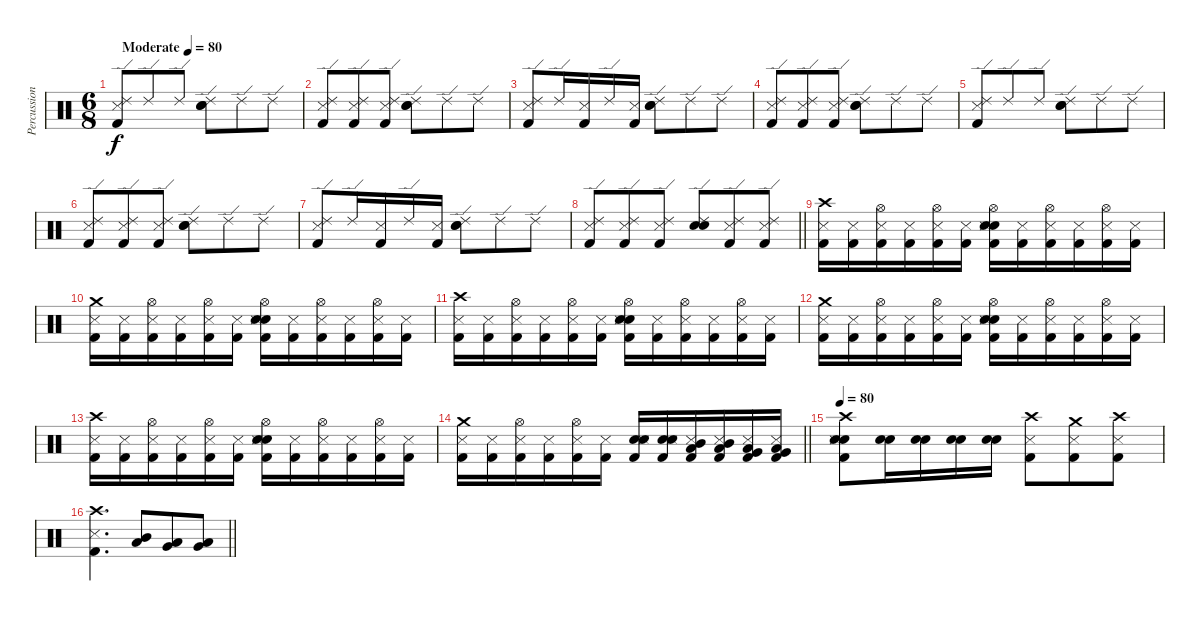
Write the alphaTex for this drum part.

\track ("Percussion" "Percussion") {instrument percussion}
\staff {score}
\articulation defaults
\ts (6 8)
\tempo (80 "Moderate")
\clef neutral
\ks c
("Ride (edge) 2" "Snare (side stick) 3" "Kick (hit) 2").8{dy f} "Ride (edge) 2".8 "Ride (edge) 2".8 ("Ride (edge) 2" "Electric Snare (hit)" "Snare (hit) 2").8 "Ride (edge) 2".8 "Ride (edge) 2".8 |
("Ride (edge) 2" "Snare (side stick) 3" "Kick (hit) 2").8 ("Ride (edge) 2" "Snare (side stick) 3" "Kick (hit) 2").8 ("Ride (edge) 2" "Snare (side stick) 3" "Kick (hit) 2").8 ("Ride (edge) 2" "Electric Snare (hit)" "Snare (hit) 2").8 "Ride (edge) 2".8 "Ride (edge) 2".8 |
("Ride (edge) 2" "Snare (side stick) 3" "Kick (hit) 2").8 "Ride (edge) 2".16 ("Snare (side stick) 3" "Kick (hit) 2").16 "Ride (edge) 2".16 ("Snare (side stick) 3" "Kick (hit) 2").16 ("Ride (edge) 2" "Electric Snare (hit)" "Snare (hit) 2").8 "Ride (edge) 2".8 "Ride (edge) 2".8 |
("Ride (edge) 2" "Snare (side stick) 3" "Kick (hit) 2").8 ("Ride (edge) 2" "Snare (side stick) 3" "Kick (hit) 2").8 ("Ride (edge) 2" "Snare (side stick) 3" "Kick (hit) 2").8 ("Ride (edge) 2" "Electric Snare (hit)" "Snare (hit) 2").8 "Ride (edge) 2".8 "Ride (edge) 2".8 |
("Ride (edge) 2" "Snare (side stick) 3" "Kick (hit) 2").8 "Ride (edge) 2".8 "Ride (edge) 2".8 ("Ride (edge) 2" "Electric Snare (hit)" "Snare (hit) 2").8 "Ride (edge) 2".8 "Ride (edge) 2".8 |
("Ride (edge) 2" "Snare (side stick) 3" "Kick (hit) 2").8 ("Ride (edge) 2" "Snare (side stick) 3" "Kick (hit) 2").8 ("Ride (edge) 2" "Snare (side stick) 3" "Kick (hit) 2").8 ("Ride (edge) 2" "Electric Snare (hit)" "Snare (hit) 2").8 "Ride (edge) 2".8 "Ride (edge) 2".8 |
("Ride (edge) 2" "Snare (side stick) 3" "Kick (hit) 2").8 "Ride (edge) 2".16 ("Snare (side stick) 3" "Kick (hit) 2").16 "Ride (edge) 2".16 ("Snare (side stick) 3" "Kick (hit) 2").16 ("Ride (edge) 2" "Electric Snare (hit)" "Snare (hit) 2").8 "Ride (edge) 2".8 "Ride (edge) 2".8 |
\barLineRight lightlight
("Ride (edge) 2" "Snare (side stick) 3" "Kick (hit) 2").8 ("Ride (edge) 2" "Snare (side stick) 3" "Kick (hit) 2").8 ("Ride (edge) 2" "Snare (side stick) 3" "Kick (hit) 2").8 ("Ride (edge) 2" "Electric Snare (hit)" "Snare (hit) 2").8 ("Ride (edge) 2" "Snare (side stick) 3" "Kick (hit) 2").8 ("Ride (edge) 2" "Snare (side stick) 3" "Kick (hit) 2").8 |
("Crash high (hit)" "Snare (side stick) 3" "Kick (hit) 2").16 ("Snare (side stick) 3" "Kick (hit) 2").16 ("Hi-Hat (open)" "Snare (side stick) 3" "Kick (hit) 2").16 ("Snare (side stick) 3" "Kick (hit) 2").16 ("Hi-Hat (open)" "Snare (side stick) 3" "Kick (hit) 2").16 ("Snare (side stick) 3" "Kick (hit) 2").16 ("Hi-Hat (open)" "Electric Snare (hit)" "Snare (hit) 2" "Snare (side stick) 3" "Kick (hit) 2").16 ("Snare (side stick) 3" "Kick (hit) 2").16 ("Hi-Hat (open)" "Snare (side stick) 3" "Kick (hit) 2").16 ("Snare (side stick) 3" "Kick (hit) 2").16 ("Hi-Hat (open)" "Snare (side stick) 3" "Kick (hit) 2").16 ("Snare (side stick) 3" "Kick (hit) 2").16 |
("Crash medium (hit)" "Snare (side stick) 3" "Kick (hit) 2").16 ("Snare (side stick) 3" "Kick (hit) 2").16 ("Hi-Hat (open)" "Snare (side stick) 3" "Kick (hit) 2").16 ("Snare (side stick) 3" "Kick (hit) 2").16 ("Hi-Hat (open)" "Snare (side stick) 3" "Kick (hit) 2").16 ("Snare (side stick) 3" "Kick (hit) 2").16 ("Hi-Hat (open)" "Electric Snare (hit)" "Snare (hit) 2" "Snare (side stick) 3" "Kick (hit) 2").16 ("Snare (side stick) 3" "Kick (hit) 2").16 ("Hi-Hat (open)" "Snare (side stick) 3" "Kick (hit) 2").16 ("Snare (side stick) 3" "Kick (hit) 2").16 ("Hi-Hat (open)" "Snare (side stick) 3" "Kick (hit) 2").16 ("Snare (side stick) 3" "Kick (hit) 2").16 |
("Crash high (hit)" "Snare (side stick) 3" "Kick (hit) 2").16 ("Snare (side stick) 3" "Kick (hit) 2").16 ("Hi-Hat (open)" "Snare (side stick) 3" "Kick (hit) 2").16 ("Snare (side stick) 3" "Kick (hit) 2").16 ("Hi-Hat (open)" "Snare (side stick) 3" "Kick (hit) 2").16 ("Snare (side stick) 3" "Kick (hit) 2").16 ("Hi-Hat (open)" "Electric Snare (hit)" "Snare (hit) 2" "Snare (side stick) 3" "Kick (hit) 2").16 ("Snare (side stick) 3" "Kick (hit) 2").16 ("Hi-Hat (open)" "Snare (side stick) 3" "Kick (hit) 2").16 ("Snare (side stick) 3" "Kick (hit) 2").16 ("Hi-Hat (open)" "Snare (side stick) 3" "Kick (hit) 2").16 ("Snare (side stick) 3" "Kick (hit) 2").16 |
("Crash medium (hit)" "Snare (side stick) 3" "Kick (hit) 2").16 ("Snare (side stick) 3" "Kick (hit) 2").16 ("Hi-Hat (open)" "Snare (side stick) 3" "Kick (hit) 2").16 ("Snare (side stick) 3" "Kick (hit) 2").16 ("Hi-Hat (open)" "Snare (side stick) 3" "Kick (hit) 2").16 ("Snare (side stick) 3" "Kick (hit) 2").16 ("Hi-Hat (open)" "Electric Snare (hit)" "Snare (hit) 2" "Snare (side stick) 3" "Kick (hit) 2").16 ("Snare (side stick) 3" "Kick (hit) 2").16 ("Hi-Hat (open)" "Snare (side stick) 3" "Kick (hit) 2").16 ("Snare (side stick) 3" "Kick (hit) 2").16 ("Hi-Hat (open)" "Snare (side stick) 3" "Kick (hit) 2").16 ("Snare (side stick) 3" "Kick (hit) 2").16 |
("Crash high (hit)" "Snare (side stick) 3" "Kick (hit) 2").16 ("Snare (side stick) 3" "Kick (hit) 2").16 ("Hi-Hat (open)" "Snare (side stick) 3" "Kick (hit) 2").16 ("Snare (side stick) 3" "Kick (hit) 2").16 ("Hi-Hat (open)" "Snare (side stick) 3" "Kick (hit) 2").16 ("Snare (side stick) 3" "Kick (hit) 2").16 ("Hi-Hat (open)" "Electric Snare (hit)" "Snare (hit) 2" "Snare (side stick) 3" "Kick (hit) 2").16 ("Snare (side stick) 3" "Kick (hit) 2").16 ("Hi-Hat (open)" "Snare (side stick) 3" "Kick (hit) 2").16 ("Snare (side stick) 3" "Kick (hit) 2").16 ("Hi-Hat (open)" "Snare (side stick) 3" "Kick (hit) 2").16 ("Snare (side stick) 3" "Kick (hit) 2").16 |
\barLineRight lightlight
("Crash medium (hit)" "Snare (side stick) 3" "Kick (hit) 2").16 ("Snare (side stick) 3" "Kick (hit) 2").16 ("Hi-Hat (open)" "Snare (side stick) 3" "Kick (hit) 2").16 ("Snare (side stick) 3" "Kick (hit) 2").16 ("Hi-Hat (open)" "Snare (side stick) 3" "Kick (hit) 2").16 ("Snare (side stick) 3" "Kick (hit) 2").16 ("Electric Snare (hit)" "Snare (hit) 2" "Snare (side stick) 3" "Kick (hit) 2").16 ("Electric Snare (hit)" "Snare (hit) 2" "Snare (side stick) 3" "Kick (hit) 2").16 ("Mid Tom (hit)" "Low Tom (hit)" "Snare (side stick) 3" "Kick (hit) 2").16 ("Mid Tom (hit)" "Low Tom (hit)" "Snare (side stick) 3" "Kick (hit) 2").16 ("Low Tom (hit)" "Very Low Tom (hit)" "Snare (side stick) 3" "Kick (hit) 2").16 ("Low Tom (hit)" "Very Low Tom (hit)" "Snare (side stick) 3" "Kick (hit) 2").16 |
\tempo 80
("Crash high (hit)" "Electric Snare (hit)" "Snare (hit) 2" "Snare (side stick) 3" "Kick (hit) 2").8 ("Electric Snare (hit)" "Snare (hit) 2").16 ("Electric Snare (hit)" "Snare (hit) 2").16 ("Electric Snare (hit)" "Snare (hit) 2").16 ("Electric Snare (hit)" "Snare (hit) 2").16 ("Crash high (hit)" "Snare (side stick) 3" "Kick (hit) 2").8 ("Crash medium (hit)" "Snare (side stick) 3" "Kick (hit) 2").8 ("Crash high (hit)" "Snare (side stick) 3" "Kick (hit) 2").8 |
\barLineRight lightlight
("Crash high (hit)" "Snare (side stick) 3" "Kick (hit) 2").4{d} ("Mid Tom (hit)" "Low Tom (hit)").8 ("Low Tom (hit)" "Very Low Tom (hit)").8 ("Very Low Tom (hit)" "Low Floor Tom (hit)").8
